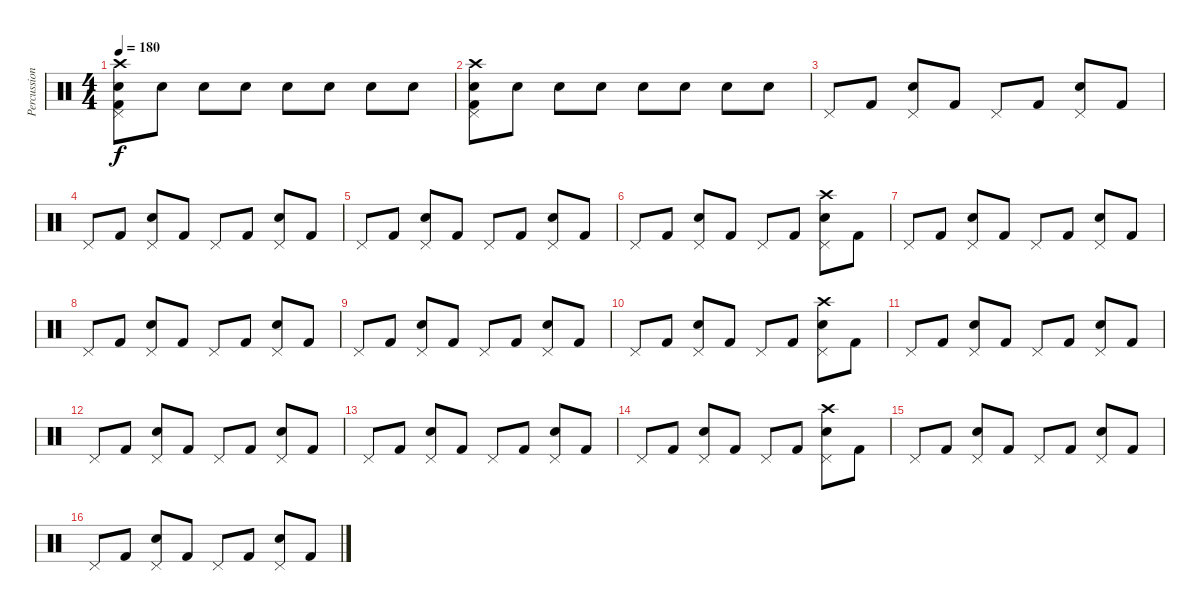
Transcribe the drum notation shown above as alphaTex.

\track ("Percussion" "Percussion") {instrument percussion}
\staff {score}
\articulation defaults
\ts (4 4)
\tempo 180
\clef neutral
\ks c
("Crash high (hit)" "Pedal Hi-Hat (hit)" "Electric Snare (hit)" "Kick (hit) 2").8{dy f} "Electric Snare (hit)".8 "Electric Snare (hit)".8 "Electric Snare (hit)".8 "Electric Snare (hit)".8 "Electric Snare (hit)".8 "Electric Snare (hit)".8 "Electric Snare (hit)".8 |
("Crash high (hit)" "Pedal Hi-Hat (hit)" "Electric Snare (hit)" "Kick (hit) 2").8 "Electric Snare (hit)".8 "Electric Snare (hit)".8 "Electric Snare (hit)".8 "Electric Snare (hit)".8 "Electric Snare (hit)".8 "Electric Snare (hit)".8 "Electric Snare (hit)".8 |
"Pedal Hi-Hat (hit)".8 "Kick (hit) 2".8 ("Pedal Hi-Hat (hit)" "Electric Snare (hit)").8 "Kick (hit) 2".8 "Pedal Hi-Hat (hit)".8 "Kick (hit) 2".8 ("Pedal Hi-Hat (hit)" "Electric Snare (hit)").8 "Kick (hit) 2".8 |
"Pedal Hi-Hat (hit)".8 "Kick (hit) 2".8 ("Pedal Hi-Hat (hit)" "Electric Snare (hit)").8 "Kick (hit) 2".8 "Pedal Hi-Hat (hit)".8 "Kick (hit) 2".8 ("Pedal Hi-Hat (hit)" "Electric Snare (hit)").8 "Kick (hit) 2".8 |
"Pedal Hi-Hat (hit)".8 "Kick (hit) 2".8 ("Pedal Hi-Hat (hit)" "Electric Snare (hit)").8 "Kick (hit) 2".8 "Pedal Hi-Hat (hit)".8 "Kick (hit) 2".8 ("Pedal Hi-Hat (hit)" "Electric Snare (hit)").8 "Kick (hit) 2".8 |
"Pedal Hi-Hat (hit)".8 "Kick (hit) 2".8 ("Pedal Hi-Hat (hit)" "Electric Snare (hit)").8 "Kick (hit) 2".8 "Pedal Hi-Hat (hit)".8 "Kick (hit) 2".8 ("Crash high (hit)" "Pedal Hi-Hat (hit)" "Electric Snare (hit)").8 "Kick (hit) 2".8 |
"Pedal Hi-Hat (hit)".8 "Kick (hit) 2".8 ("Pedal Hi-Hat (hit)" "Electric Snare (hit)").8 "Kick (hit) 2".8 "Pedal Hi-Hat (hit)".8 "Kick (hit) 2".8 ("Pedal Hi-Hat (hit)" "Electric Snare (hit)").8 "Kick (hit) 2".8 |
"Pedal Hi-Hat (hit)".8 "Kick (hit) 2".8 ("Pedal Hi-Hat (hit)" "Electric Snare (hit)").8 "Kick (hit) 2".8 "Pedal Hi-Hat (hit)".8 "Kick (hit) 2".8 ("Pedal Hi-Hat (hit)" "Electric Snare (hit)").8 "Kick (hit) 2".8 |
"Pedal Hi-Hat (hit)".8 "Kick (hit) 2".8 ("Pedal Hi-Hat (hit)" "Electric Snare (hit)").8 "Kick (hit) 2".8 "Pedal Hi-Hat (hit)".8 "Kick (hit) 2".8 ("Pedal Hi-Hat (hit)" "Electric Snare (hit)").8 "Kick (hit) 2".8 |
"Pedal Hi-Hat (hit)".8 "Kick (hit) 2".8 ("Pedal Hi-Hat (hit)" "Electric Snare (hit)").8 "Kick (hit) 2".8 "Pedal Hi-Hat (hit)".8 "Kick (hit) 2".8 ("Crash high (hit)" "Pedal Hi-Hat (hit)" "Electric Snare (hit)").8 "Kick (hit) 2".8 |
"Pedal Hi-Hat (hit)".8 "Kick (hit) 2".8 ("Pedal Hi-Hat (hit)" "Electric Snare (hit)").8 "Kick (hit) 2".8 "Pedal Hi-Hat (hit)".8 "Kick (hit) 2".8 ("Pedal Hi-Hat (hit)" "Electric Snare (hit)").8 "Kick (hit) 2".8 |
"Pedal Hi-Hat (hit)".8 "Kick (hit) 2".8 ("Pedal Hi-Hat (hit)" "Electric Snare (hit)").8 "Kick (hit) 2".8 "Pedal Hi-Hat (hit)".8 "Kick (hit) 2".8 ("Pedal Hi-Hat (hit)" "Electric Snare (hit)").8 "Kick (hit) 2".8 |
"Pedal Hi-Hat (hit)".8 "Kick (hit) 2".8 ("Pedal Hi-Hat (hit)" "Electric Snare (hit)").8 "Kick (hit) 2".8 "Pedal Hi-Hat (hit)".8 "Kick (hit) 2".8 ("Pedal Hi-Hat (hit)" "Electric Snare (hit)").8 "Kick (hit) 2".8 |
"Pedal Hi-Hat (hit)".8 "Kick (hit) 2".8 ("Pedal Hi-Hat (hit)" "Electric Snare (hit)").8 "Kick (hit) 2".8 "Pedal Hi-Hat (hit)".8 "Kick (hit) 2".8 ("Crash high (hit)" "Pedal Hi-Hat (hit)" "Electric Snare (hit)").8 "Kick (hit) 2".8 |
"Pedal Hi-Hat (hit)".8 "Kick (hit) 2".8 ("Pedal Hi-Hat (hit)" "Electric Snare (hit)").8 "Kick (hit) 2".8 "Pedal Hi-Hat (hit)".8 "Kick (hit) 2".8 ("Pedal Hi-Hat (hit)" "Electric Snare (hit)").8 "Kick (hit) 2".8 |
"Pedal Hi-Hat (hit)".8 "Kick (hit) 2".8 ("Pedal Hi-Hat (hit)" "Electric Snare (hit)").8 "Kick (hit) 2".8 "Pedal Hi-Hat (hit)".8 "Kick (hit) 2".8 ("Pedal Hi-Hat (hit)" "Electric Snare (hit)").8 "Kick (hit) 2".8
